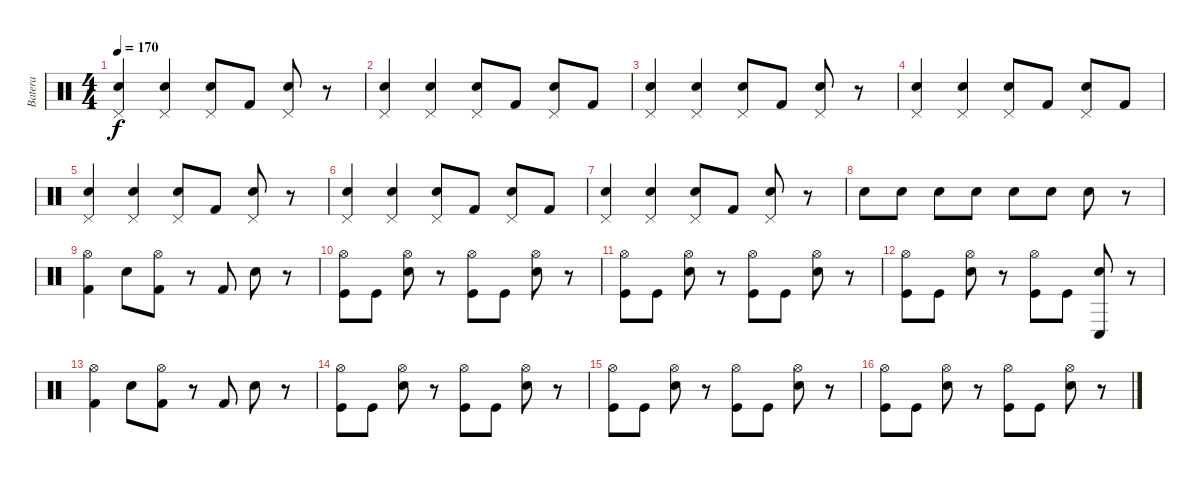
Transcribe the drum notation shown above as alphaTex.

\track ("Batera" "Batera") {instrument percussion}
\staff {score}
\articulation defaults
\ts (4 4)
\tempo 170
\clef neutral
\ks c
("Pedal Hi-Hat (hit)" "Electric Snare (hit)").4{dy f} ("Pedal Hi-Hat (hit)" "Electric Snare (hit)").4 ("Pedal Hi-Hat (hit)" "Electric Snare (hit)").8 "Kick (hit) 2".8 ("Pedal Hi-Hat (hit)" "Electric Snare (hit)").8 r.8 |
("Pedal Hi-Hat (hit)" "Electric Snare (hit)").4 ("Pedal Hi-Hat (hit)" "Electric Snare (hit)").4 ("Pedal Hi-Hat (hit)" "Electric Snare (hit)").8 "Kick (hit) 2".8 ("Pedal Hi-Hat (hit)" "Electric Snare (hit)").8 "Kick (hit) 2".8 |
("Pedal Hi-Hat (hit)" "Electric Snare (hit)").4 ("Pedal Hi-Hat (hit)" "Electric Snare (hit)").4 ("Pedal Hi-Hat (hit)" "Electric Snare (hit)").8 "Kick (hit) 2".8 ("Pedal Hi-Hat (hit)" "Electric Snare (hit)").8 r.8 |
("Pedal Hi-Hat (hit)" "Electric Snare (hit)").4 ("Pedal Hi-Hat (hit)" "Electric Snare (hit)").4 ("Pedal Hi-Hat (hit)" "Electric Snare (hit)").8 "Kick (hit) 2".8 ("Pedal Hi-Hat (hit)" "Electric Snare (hit)").8 "Kick (hit) 2".8 |
("Pedal Hi-Hat (hit)" "Electric Snare (hit)").4 ("Pedal Hi-Hat (hit)" "Electric Snare (hit)").4 ("Pedal Hi-Hat (hit)" "Electric Snare (hit)").8 "Kick (hit) 2".8 ("Pedal Hi-Hat (hit)" "Electric Snare (hit)").8 r.8 |
("Pedal Hi-Hat (hit)" "Electric Snare (hit)").4 ("Pedal Hi-Hat (hit)" "Electric Snare (hit)").4 ("Pedal Hi-Hat (hit)" "Electric Snare (hit)").8 "Kick (hit) 2".8 ("Pedal Hi-Hat (hit)" "Electric Snare (hit)").8 "Kick (hit) 2".8 |
("Pedal Hi-Hat (hit)" "Electric Snare (hit)").4 ("Pedal Hi-Hat (hit)" "Electric Snare (hit)").4 ("Pedal Hi-Hat (hit)" "Electric Snare (hit)").8 "Kick (hit) 2".8 ("Pedal Hi-Hat (hit)" "Electric Snare (hit)").8 r.8 |
"Electric Snare (hit)".8 "Electric Snare (hit)".8 "Electric Snare (hit)".8 "Electric Snare (hit)".8 "Electric Snare (hit)".8 "Electric Snare (hit)".8 "Electric Snare (hit)".8 r.8 |
("Hi-Hat (open)" "Kick (hit) 2").4 "Electric Snare (hit)".8 ("Hi-Hat (open)" "Kick (hit) 2").8 r.8 "Kick (hit) 2".8 "Electric Snare (hit)".8 r.8 |
("Hi-Hat (open)" "Kick (hit)").8 "Kick (hit)".8 ("Hi-Hat (open)" "Electric Snare (hit)").8 r.8 ("Hi-Hat (open)" "Kick (hit)").8 "Kick (hit)".8 ("Hi-Hat (open)" "Electric Snare (hit)").8 r.8 |
("Hi-Hat (open)" "Kick (hit)").8 "Kick (hit)".8 ("Hi-Hat (open)" "Electric Snare (hit)").8 r.8 ("Hi-Hat (open)" "Kick (hit)").8 "Kick (hit)".8 ("Hi-Hat (open)" "Electric Snare (hit)").8 r.8 |
("Hi-Hat (open)" "Kick (hit)").8 "Kick (hit)".8 ("Hi-Hat (open)" "Electric Snare (hit)").8 r.8 ("Hi-Hat (open)" "Kick (hit)").8 "Kick (hit)".8 ("Conga low (hit)" "Electric Snare (hit)").8 r.8 |
("Hi-Hat (open)" "Kick (hit) 2").4 "Electric Snare (hit)".8 ("Hi-Hat (open)" "Kick (hit) 2").8 r.8 "Kick (hit) 2".8 "Electric Snare (hit)".8 r.8 |
("Hi-Hat (open)" "Kick (hit)").8 "Kick (hit)".8 ("Hi-Hat (open)" "Electric Snare (hit)").8 r.8 ("Hi-Hat (open)" "Kick (hit)").8 "Kick (hit)".8 ("Hi-Hat (open)" "Electric Snare (hit)").8 r.8 |
("Hi-Hat (open)" "Kick (hit)").8 "Kick (hit)".8 ("Hi-Hat (open)" "Electric Snare (hit)").8 r.8 ("Hi-Hat (open)" "Kick (hit)").8 "Kick (hit)".8 ("Hi-Hat (open)" "Electric Snare (hit)").8 r.8 |
("Hi-Hat (open)" "Kick (hit)").8 "Kick (hit)".8 ("Hi-Hat (open)" "Electric Snare (hit)").8 r.8 ("Hi-Hat (open)" "Kick (hit)").8 "Kick (hit)".8 ("Hi-Hat (open)" "Electric Snare (hit)").8 r.8
